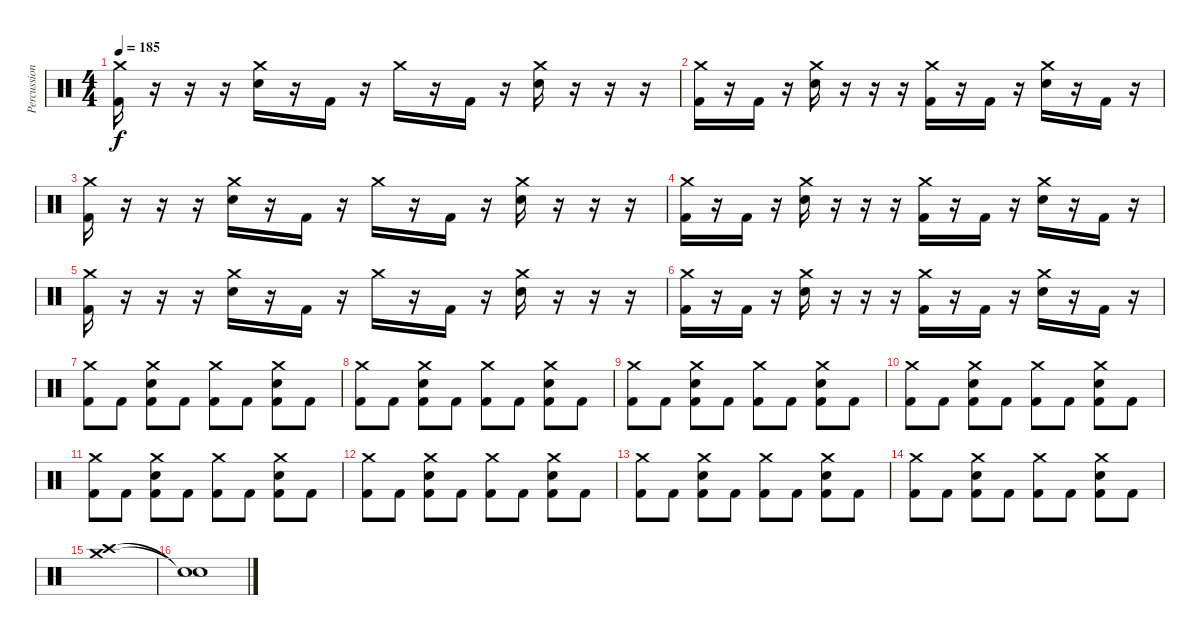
\track ("Percussion" "Percussion") {instrument percussion}
\staff {score}
\articulation defaults
\ts (4 4)
\tempo 185
\clef neutral
\ks c
("Crash medium (hit)" "Kick (hit) 2").16{dy f} r.16 r.16 r.16 ("Crash medium (hit)" "Electric Snare (hit)").16 r.16 "Kick (hit) 2".16 r.16 "Crash medium (hit)".16 r.16 "Kick (hit) 2".16 r.16 ("Crash medium (hit)" "Electric Snare (hit)").16 r.16 r.16 r.16 |
("Crash medium (hit)" "Kick (hit) 2").16 r.16 "Kick (hit) 2".16 r.16 ("Crash medium (hit)" "Electric Snare (hit)").16 r.16 r.16 r.16 ("Crash medium (hit)" "Kick (hit) 2").16 r.16 "Kick (hit) 2".16 r.16 ("Crash medium (hit)" "Electric Snare (hit)").16 r.16 "Kick (hit) 2".16 r.16 |
("Crash medium (hit)" "Kick (hit) 2").16 r.16 r.16 r.16 ("Crash medium (hit)" "Electric Snare (hit)").16 r.16 "Kick (hit) 2".16 r.16 "Crash medium (hit)".16 r.16 "Kick (hit) 2".16 r.16 ("Crash medium (hit)" "Electric Snare (hit)").16 r.16 r.16 r.16 |
("Crash medium (hit)" "Kick (hit) 2").16 r.16 "Kick (hit) 2".16 r.16 ("Crash medium (hit)" "Electric Snare (hit)").16 r.16 r.16 r.16 ("Crash medium (hit)" "Kick (hit) 2").16 r.16 "Kick (hit) 2".16 r.16 ("Crash medium (hit)" "Electric Snare (hit)").16 r.16 "Kick (hit) 2".16 r.16 |
("Crash medium (hit)" "Kick (hit) 2").16 r.16 r.16 r.16 ("Crash medium (hit)" "Electric Snare (hit)").16 r.16 "Kick (hit) 2".16 r.16 "Crash medium (hit)".16 r.16 "Kick (hit) 2".16 r.16 ("Crash medium (hit)" "Electric Snare (hit)").16 r.16 r.16 r.16 |
("Crash medium (hit)" "Kick (hit) 2").16 r.16 "Kick (hit) 2".16 r.16 ("Crash medium (hit)" "Electric Snare (hit)").16 r.16 r.16 r.16 ("Crash medium (hit)" "Kick (hit) 2").16 r.16 "Kick (hit) 2".16 r.16 ("Crash medium (hit)" "Electric Snare (hit)").16 r.16 "Kick (hit) 2".16 r.16 |
("Crash medium (hit)" "Kick (hit) 2").8 "Kick (hit) 2".8 ("Crash medium (hit)" "Electric Snare (hit)" "Kick (hit) 2").8 "Kick (hit) 2".8 ("Crash medium (hit)" "Kick (hit) 2").8 "Kick (hit) 2".8 ("Crash medium (hit)" "Electric Snare (hit)" "Kick (hit) 2").8 "Kick (hit) 2".8 |
("Crash medium (hit)" "Kick (hit) 2").8 "Kick (hit) 2".8 ("Crash medium (hit)" "Electric Snare (hit)" "Kick (hit) 2").8 "Kick (hit) 2".8 ("Crash medium (hit)" "Kick (hit) 2").8 "Kick (hit) 2".8 ("Crash medium (hit)" "Electric Snare (hit)" "Kick (hit) 2").8 "Kick (hit) 2".8 |
("Crash medium (hit)" "Kick (hit) 2").8 "Kick (hit) 2".8 ("Crash medium (hit)" "Electric Snare (hit)" "Kick (hit) 2").8 "Kick (hit) 2".8 ("Crash medium (hit)" "Kick (hit) 2").8 "Kick (hit) 2".8 ("Crash medium (hit)" "Electric Snare (hit)" "Kick (hit) 2").8 "Kick (hit) 2".8 |
("Crash medium (hit)" "Kick (hit) 2").8 "Kick (hit) 2".8 ("Crash medium (hit)" "Electric Snare (hit)" "Kick (hit) 2").8 "Kick (hit) 2".8 ("Crash medium (hit)" "Kick (hit) 2").8 "Kick (hit) 2".8 ("Crash medium (hit)" "Electric Snare (hit)" "Kick (hit) 2").8 "Kick (hit) 2".8 |
("Crash medium (hit)" "Kick (hit) 2").8 "Kick (hit) 2".8 ("Crash medium (hit)" "Electric Snare (hit)" "Kick (hit) 2").8 "Kick (hit) 2".8 ("Crash medium (hit)" "Kick (hit) 2").8 "Kick (hit) 2".8 ("Crash medium (hit)" "Electric Snare (hit)" "Kick (hit) 2").8 "Kick (hit) 2".8 |
("Crash medium (hit)" "Kick (hit) 2").8 "Kick (hit) 2".8 ("Crash medium (hit)" "Electric Snare (hit)" "Kick (hit) 2").8 "Kick (hit) 2".8 ("Crash medium (hit)" "Kick (hit) 2").8 "Kick (hit) 2".8 ("Crash medium (hit)" "Electric Snare (hit)" "Kick (hit) 2").8 "Kick (hit) 2".8 |
("Crash medium (hit)" "Kick (hit) 2").8 "Kick (hit) 2".8 ("Crash medium (hit)" "Electric Snare (hit)" "Kick (hit) 2").8 "Kick (hit) 2".8 ("Crash medium (hit)" "Kick (hit) 2").8 "Kick (hit) 2".8 ("Crash medium (hit)" "Electric Snare (hit)" "Kick (hit) 2").8 "Kick (hit) 2".8 |
("Crash medium (hit)" "Kick (hit) 2").8 "Kick (hit) 2".8 ("Crash medium (hit)" "Electric Snare (hit)" "Kick (hit) 2").8 "Kick (hit) 2".8 ("Crash medium (hit)" "Kick (hit) 2").8 "Kick (hit) 2".8 ("Crash medium (hit)" "Electric Snare (hit)" "Kick (hit) 2").8 "Kick (hit) 2".8 |
("Crash high (hit)" "Crash medium (hit)").1 |
("Snare (hit)"{t} "Snare (hit)"{t}).1
